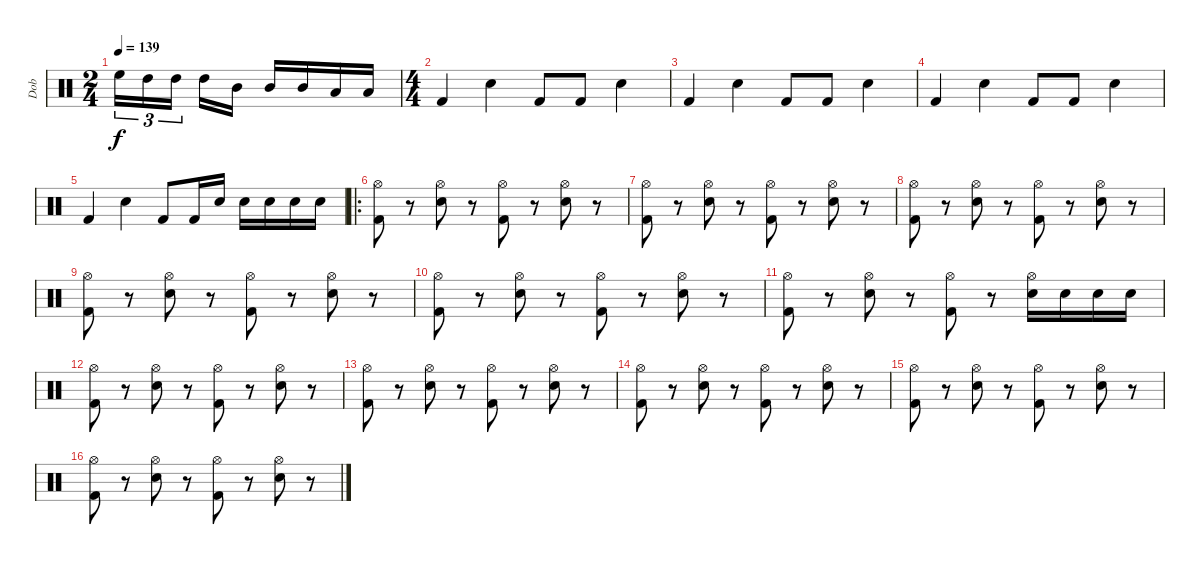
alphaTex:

\track ("Dob" "Dob") {instrument percussion}
\staff {score}
\articulation defaults
\ts (2 4)
\tempo 139
\clef neutral
\ks c "High Floor Tom (hit)".16{tu (3 2) dy f} "High Tom (hit)".16{tu (3 2)} "High Tom (hit)".16{tu (3 2)} "High Tom (hit)".16 "Mid Tom (hit)".16 "Mid Tom (hit)".16 "Mid Tom (hit)".16 "Low Tom (hit)".16 "Low Tom (hit)".16
|
\ts (4 4)
"Kick (hit) 2".4 "Electric Snare (hit)".4 "Kick (hit) 2".8 "Kick (hit) 2".8 "Electric Snare (hit)".4 |
"Kick (hit) 2".4 "Electric Snare (hit)".4 "Kick (hit) 2".8 "Kick (hit) 2".8 "Electric Snare (hit)".4 |
"Kick (hit) 2".4 "Electric Snare (hit)".4 "Kick (hit) 2".8 "Kick (hit) 2".8 "Electric Snare (hit)".4 |
"Kick (hit) 2".4 "Electric Snare (hit)".4 "Kick (hit) 2".8 "Kick (hit) 2".16 "Electric Snare (hit)".16 "Electric Snare (hit)".16 "Electric Snare (hit)".16 "Electric Snare (hit)".16 "Electric Snare (hit)".16 |
\ro
("Hi-Hat (open)" "Kick (hit) 2").8 r.8 ("Hi-Hat (open)" "Electric Snare (hit)").8 r.8 ("Hi-Hat (open)" "Kick (hit) 2").8 r.8 ("Hi-Hat (open)" "Electric Snare (hit)").8 r.8 |
("Hi-Hat (open)" "Kick (hit) 2").8 r.8 ("Hi-Hat (open)" "Electric Snare (hit)").8 r.8 ("Hi-Hat (open)" "Kick (hit) 2").8 r.8 ("Hi-Hat (open)" "Electric Snare (hit)").8 r.8 |
("Hi-Hat (open)" "Kick (hit) 2").8 r.8 ("Hi-Hat (open)" "Electric Snare (hit)").8 r.8 ("Hi-Hat (open)" "Kick (hit) 2").8 r.8 ("Hi-Hat (open)" "Electric Snare (hit)").8 r.8 |
("Hi-Hat (open)" "Kick (hit) 2").8 r.8 ("Hi-Hat (open)" "Electric Snare (hit)").8 r.8 ("Hi-Hat (open)" "Kick (hit) 2").8 r.8 ("Hi-Hat (open)" "Electric Snare (hit)").8 r.8 |
("Hi-Hat (open)" "Kick (hit) 2").8 r.8 ("Hi-Hat (open)" "Electric Snare (hit)").8 r.8 ("Hi-Hat (open)" "Kick (hit) 2").8 r.8 ("Hi-Hat (open)" "Electric Snare (hit)").8 r.8 |
("Hi-Hat (open)" "Kick (hit) 2").8 r.8 ("Hi-Hat (open)" "Electric Snare (hit)").8 r.8 ("Hi-Hat (open)" "Kick (hit) 2").8 r.8 ("Hi-Hat (open)" "Electric Snare (hit)").16 "Electric Snare (hit)".16 "Electric Snare (hit)".16 "Electric Snare (hit)".16 |
("Hi-Hat (open)" "Kick (hit) 2").8 r.8 ("Hi-Hat (open)" "Electric Snare (hit)").8 r.8 ("Hi-Hat (open)" "Kick (hit) 2").8 r.8 ("Hi-Hat (open)" "Electric Snare (hit)").8 r.8 |
("Hi-Hat (open)" "Kick (hit) 2").8 r.8 ("Hi-Hat (open)" "Electric Snare (hit)").8 r.8 ("Hi-Hat (open)" "Kick (hit) 2").8 r.8 ("Hi-Hat (open)" "Electric Snare (hit)").8 r.8 |
("Hi-Hat (open)" "Kick (hit) 2").8 r.8 ("Hi-Hat (open)" "Electric Snare (hit)").8 r.8 ("Hi-Hat (open)" "Kick (hit) 2").8 r.8 ("Hi-Hat (open)" "Electric Snare (hit)").8 r.8 |
("Hi-Hat (open)" "Kick (hit) 2").8 r.8 ("Hi-Hat (open)" "Electric Snare (hit)").8 r.8 ("Hi-Hat (open)" "Kick (hit) 2").8 r.8 ("Hi-Hat (open)" "Electric Snare (hit)").8 r.8 |
("Hi-Hat (open)" "Kick (hit) 2").8 r.8 ("Hi-Hat (open)" "Electric Snare (hit)").8 r.8 ("Hi-Hat (open)" "Kick (hit) 2").8 r.8 ("Hi-Hat (open)" "Electric Snare (hit)").8 r.8
